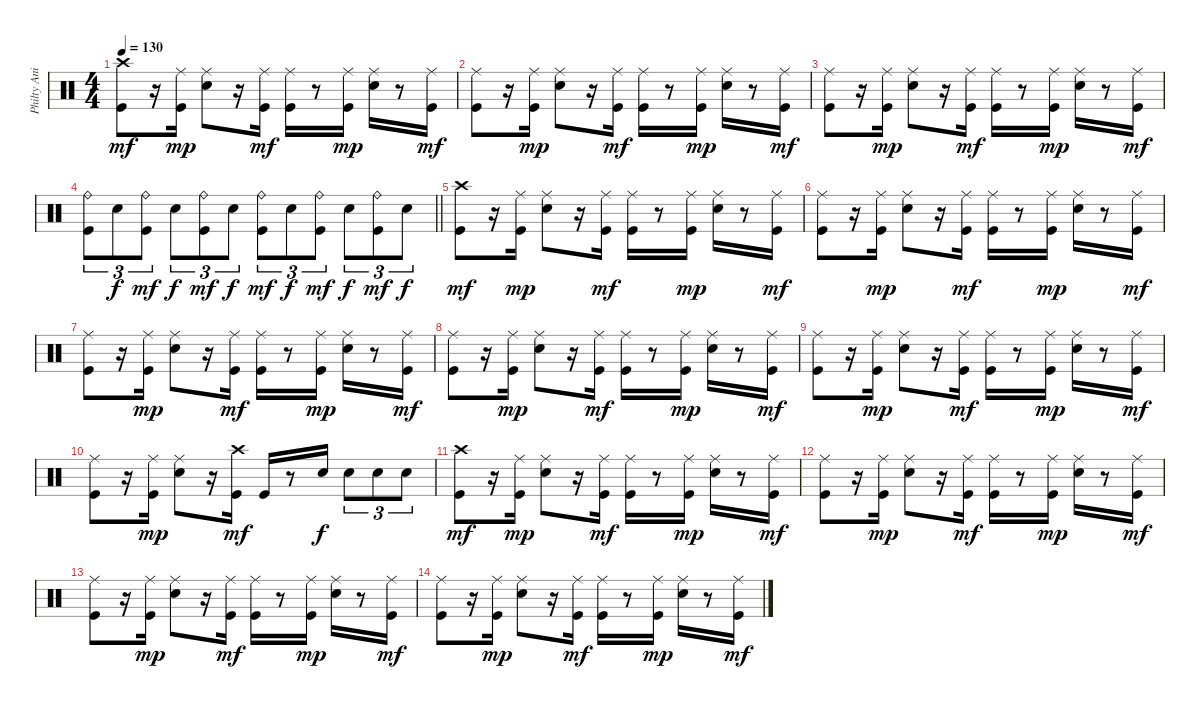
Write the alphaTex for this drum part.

\track ("Philty Animal Taylor" "Philty Ani") {instrument percussion}
\staff {score}
\articulation defaults
\ts (4 4)
\tempo 130
\clef neutral
\ks c
("Crash high (hit)" "Kick (hit)").8{dy mf} r.16 ("Ride (middle)" "Kick (hit)").16{dy mp} ("Ride (middle)" "Snare (hit) 2").8 r.16 ("Ride (middle)" "Kick (hit)").16{dy mf} ("Ride (middle)" "Kick (hit)").16 r.8 ("Ride (middle)" "Kick (hit)").16{dy mp} ("Ride (middle)" "Snare (hit) 2").16 r.8 ("Ride (middle)" "Kick (hit)").16{dy mf} |
("Ride (middle)" "Kick (hit)").8 r.16 ("Ride (middle)" "Kick (hit)").16{dy mp} ("Ride (middle)" "Snare (hit) 2").8 r.16 ("Ride (middle)" "Kick (hit)").16{dy mf} ("Ride (middle)" "Kick (hit)").16 r.8 ("Ride (middle)" "Kick (hit)").16{dy mp} ("Ride (middle)" "Snare (hit) 2").16 r.8 ("Ride (middle)" "Kick (hit)").16{dy mf} |
("Ride (middle)" "Kick (hit)").8 r.16 ("Ride (middle)" "Kick (hit)").16{dy mp} ("Ride (middle)" "Snare (hit) 2").8 r.16 ("Ride (middle)" "Kick (hit)").16{dy mf} ("Ride (middle)" "Kick (hit)").16 r.8 ("Ride (middle)" "Kick (hit)").16{dy mp} ("Ride (middle)" "Snare (hit) 2").16 r.8 ("Ride (middle)" "Kick (hit)").16{dy mf} |
\barLineRight lightlight
("Ride (bell)" "Kick (hit)").8{tu (3 2)} "Snare (hit) 2".8{tu (3 2) dy f} ("Ride (bell)" "Kick (hit)").8{tu (3 2) dy mf} "Snare (hit) 2".8{tu (3 2) dy f} ("Ride (bell)" "Kick (hit)").8{tu (3 2) dy mf} "Snare (hit) 2".8{tu (3 2) dy f} ("Ride (bell)" "Kick (hit)").8{tu (3 2) dy mf} "Snare (hit) 2".8{tu (3 2) dy f} ("Ride (bell)" "Kick (hit)").8{tu (3 2) dy mf} "Snare (hit) 2".8{tu (3 2) dy f} ("Ride (bell)" "Kick (hit)").8{tu (3 2) dy mf} "Snare (hit) 2".8{tu (3 2) dy f} |
("Crash high (hit)" "Kick (hit)").8{dy mf} r.16 ("Ride (middle)" "Kick (hit)").16{dy mp} ("Ride (middle)" "Snare (hit) 2").8 r.16 ("Ride (middle)" "Kick (hit)").16{dy mf} ("Ride (middle)" "Kick (hit)").16 r.8 ("Ride (middle)" "Kick (hit)").16{dy mp} ("Ride (middle)" "Snare (hit) 2").16 r.8 ("Ride (middle)" "Kick (hit)").16{dy mf} |
("Ride (middle)" "Kick (hit)").8 r.16 ("Ride (middle)" "Kick (hit)").16{dy mp} ("Ride (middle)" "Snare (hit) 2").8 r.16 ("Ride (middle)" "Kick (hit)").16{dy mf} ("Ride (middle)" "Kick (hit)").16 r.8 ("Ride (middle)" "Kick (hit)").16{dy mp} ("Ride (middle)" "Snare (hit) 2").16 r.8 ("Ride (middle)" "Kick (hit)").16{dy mf} |
("Ride (middle)" "Kick (hit)").8 r.16 ("Ride (middle)" "Kick (hit)").16{dy mp} ("Ride (middle)" "Snare (hit) 2").8 r.16 ("Ride (middle)" "Kick (hit)").16{dy mf} ("Ride (middle)" "Kick (hit)").16 r.8 ("Ride (middle)" "Kick (hit)").16{dy mp} ("Ride (middle)" "Snare (hit) 2").16 r.8 ("Ride (middle)" "Kick (hit)").16{dy mf} |
("Ride (middle)" "Kick (hit)").8 r.16 ("Ride (middle)" "Kick (hit)").16{dy mp} ("Ride (middle)" "Snare (hit) 2").8 r.16 ("Ride (middle)" "Kick (hit)").16{dy mf} ("Ride (middle)" "Kick (hit)").16 r.8 ("Ride (middle)" "Kick (hit)").16{dy mp} ("Ride (middle)" "Snare (hit) 2").16 r.8 ("Ride (middle)" "Kick (hit)").16{dy mf} |
("Ride (middle)" "Kick (hit)").8{volume 5} r.16 ("Ride (middle)" "Kick (hit)").16{dy mp} ("Ride (middle)" "Snare (hit) 2").8 r.16 ("Ride (middle)" "Kick (hit)").16{dy mf} ("Ride (middle)" "Kick (hit)").16 r.8 ("Ride (middle)" "Kick (hit)").16{dy mp} ("Ride (middle)" "Snare (hit) 2").16 r.8 ("Ride (middle)" "Kick (hit)").16{dy mf} |
("Ride (middle)" "Kick (hit)").8 r.16 ("Ride (middle)" "Kick (hit)").16{dy mp} ("Ride (middle)" "Snare (hit) 2").8 r.16 ("Crash high (hit)" "Kick (hit)").16{dy mf} "Kick (hit)".16 r.8 "Snare (hit) 2".16{dy f} "Snare (hit) 2".8{tu (3 2)} "Snare (hit) 2".8{tu (3 2)} "Snare (hit) 2".8{tu (3 2)} |
("Crash high (hit)" "Kick (hit)").8{dy mf} r.16 ("Ride (middle)" "Kick (hit)").16{dy mp} ("Ride (middle)" "Snare (hit) 2").8 r.16 ("Ride (middle)" "Kick (hit)").16{dy mf} ("Ride (middle)" "Kick (hit)").16 r.8 ("Ride (middle)" "Kick (hit)").16{dy mp} ("Ride (middle)" "Snare (hit) 2").16 r.8 ("Ride (middle)" "Kick (hit)").16{dy mf} |
("Ride (middle)" "Kick (hit)").8 r.16 ("Ride (middle)" "Kick (hit)").16{dy mp} ("Ride (middle)" "Snare (hit) 2").8 r.16 ("Ride (middle)" "Kick (hit)").16{dy mf} ("Ride (middle)" "Kick (hit)").16 r.8 ("Ride (middle)" "Kick (hit)").16{dy mp} ("Ride (middle)" "Snare (hit) 2").16 r.8 ("Ride (middle)" "Kick (hit)").16{dy mf} |
("Ride (middle)" "Kick (hit)").8{volume 0} r.16 ("Ride (middle)" "Kick (hit)").16{dy mp} ("Ride (middle)" "Snare (hit) 2").8 r.16 ("Ride (middle)" "Kick (hit)").16{dy mf} ("Ride (middle)" "Kick (hit)").16 r.8 ("Ride (middle)" "Kick (hit)").16{dy mp} ("Ride (middle)" "Snare (hit) 2").16 r.8 ("Ride (middle)" "Kick (hit)").16{dy mf} |
("Ride (middle)" "Kick (hit)").8 r.16 ("Ride (middle)" "Kick (hit)").16{dy mp} ("Ride (middle)" "Snare (hit) 2").8 r.16 ("Ride (middle)" "Kick (hit)").16{dy mf} ("Ride (middle)" "Kick (hit)").16 r.8 ("Ride (middle)" "Kick (hit)").16{dy mp} ("Ride (middle)" "Snare (hit) 2").16 r.8 ("Ride (middle)" "Kick (hit)").16{dy mf}
